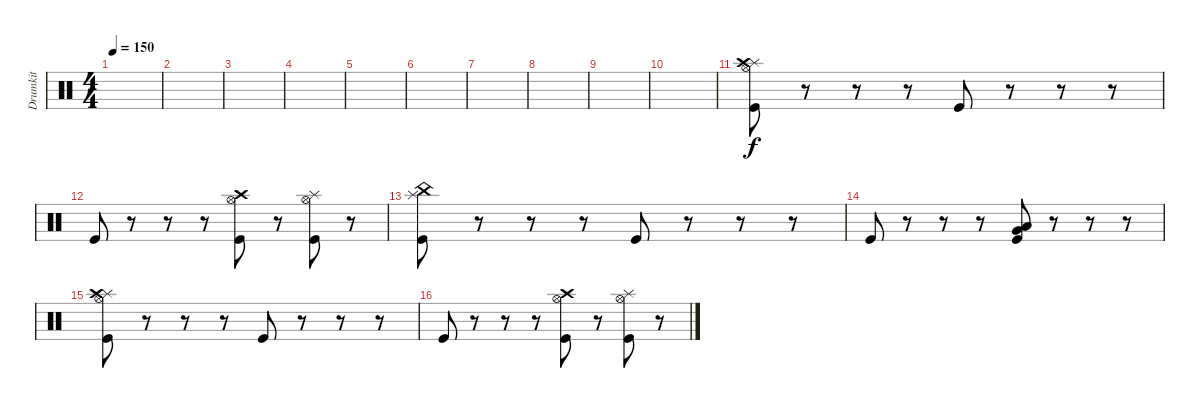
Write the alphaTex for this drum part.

\track ("Drumkit" "Drumkit") {instrument percussion}
\staff {score}
\articulation defaults
\ts (4 4)
\tempo 150
\clef neutral
\ks c
|
|
|
|
|
|
|
|
|
|
("Splash (hit)" "Hi-Hat (open)" "Crash high (hit)" "Kick (hit)").8 r.8 r.8 r.8 "Kick (hit)".8 r.8 r.8 r.8 |
"Kick (hit)".8 r.8 r.8 r.8 ("Kick (hit)" "Hi-Hat (open)" "Crash high (hit)").8 r.8 ("Kick (hit)" "Hi-Hat (open)" "Splash (hit)").8 r.8 |
("Splash (hit)" "China (hit)" "Kick (hit)").8 r.8 r.8 r.8 "Kick (hit)".8 r.8 r.8 r.8 |
"Kick (hit)".8 r.8 r.8 r.8 ("Low Floor Tom (hit)" "Very Low Tom (hit)" "Kick (hit)").8 r.8 r.8 r.8 |
("Splash (hit)" "Hi-Hat (open)" "Crash high (hit)" "Kick (hit)").8 r.8 r.8 r.8 "Kick (hit)".8 r.8 r.8 r.8 |
"Kick (hit)".8 r.8 r.8 r.8 ("Kick (hit)" "Hi-Hat (open)" "Crash high (hit)").8 r.8 ("Kick (hit)" "Hi-Hat (open)" "Splash (hit)").8 r.8
